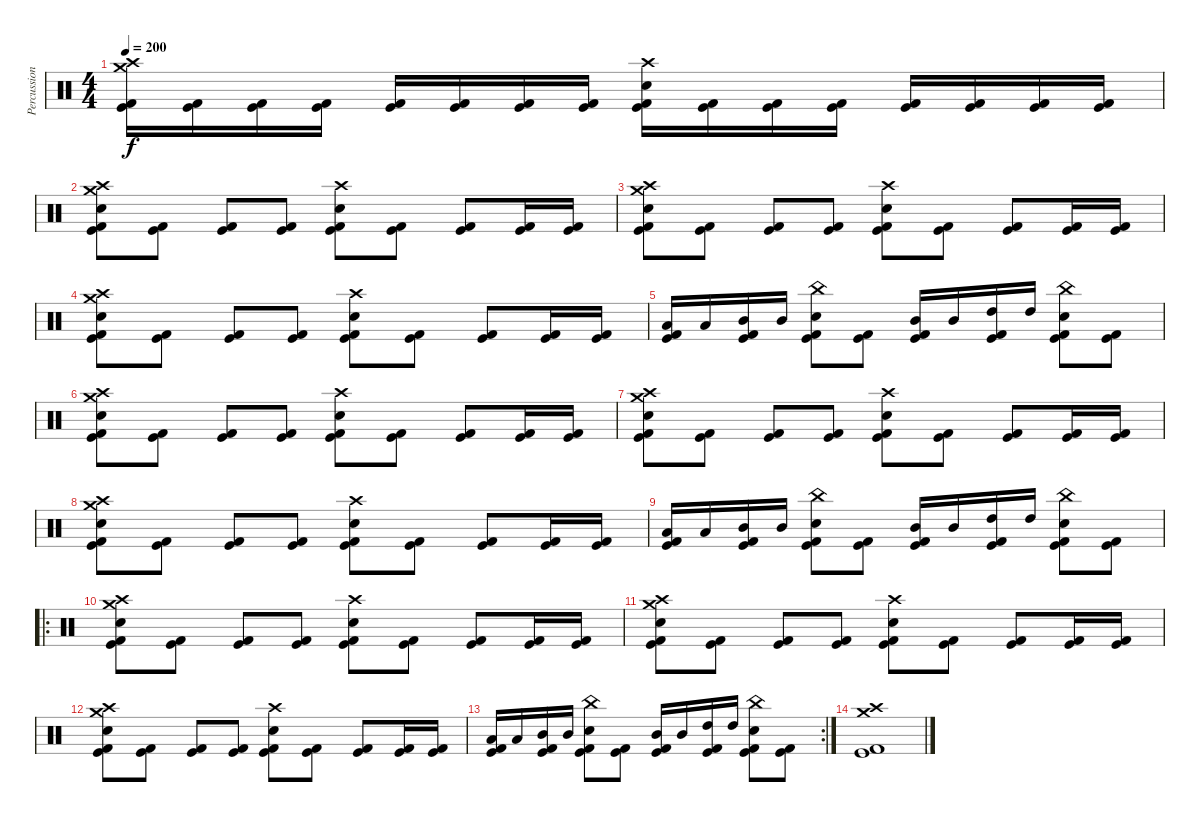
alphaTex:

\track ("Percussion" "Percussion") {instrument percussion}
\staff {score}
\articulation defaults
\ts (4 4)
\tempo 200
\clef neutral
\ks c
("Crash medium (hit)" "Crash high (hit)" "Kick (hit)" "Kick (hit) 2").16{dy f} ("Kick (hit)" "Kick (hit) 2").16 ("Kick (hit)" "Kick (hit) 2").16 ("Kick (hit)" "Kick (hit) 2").16 ("Kick (hit)" "Kick (hit) 2").16 ("Kick (hit)" "Kick (hit) 2").16 ("Kick (hit)" "Kick (hit) 2").16 ("Kick (hit)" "Kick (hit) 2").16 ("Crash high (hit)" "Electric Snare (hit)" "Kick (hit)" "Kick (hit) 2").16 ("Kick (hit)" "Kick (hit) 2").16 ("Kick (hit)" "Kick (hit) 2").16 ("Kick (hit)" "Kick (hit) 2").16 ("Kick (hit)" "Kick (hit) 2").16 ("Kick (hit)" "Kick (hit) 2").16 ("Kick (hit)" "Kick (hit) 2").16 ("Kick (hit)" "Kick (hit) 2").16 |
("Crash medium (hit)" "Crash high (hit)" "Electric Snare (hit)" "Kick (hit)" "Kick (hit) 2").8 ("Kick (hit)" "Kick (hit) 2").8 ("Kick (hit)" "Kick (hit) 2").8 ("Kick (hit)" "Kick (hit) 2").8 ("Crash high (hit)" "Electric Snare (hit)" "Kick (hit)" "Kick (hit) 2").8 ("Kick (hit)" "Kick (hit) 2").8 ("Kick (hit)" "Kick (hit) 2").8 ("Kick (hit)" "Kick (hit) 2").16 ("Kick (hit)" "Kick (hit) 2").16 |
("Crash medium (hit)" "Crash high (hit)" "Electric Snare (hit)" "Kick (hit)" "Kick (hit) 2").8 ("Kick (hit)" "Kick (hit) 2").8 ("Kick (hit)" "Kick (hit) 2").8 ("Kick (hit)" "Kick (hit) 2").8 ("Crash high (hit)" "Electric Snare (hit)" "Kick (hit)" "Kick (hit) 2").8 ("Kick (hit)" "Kick (hit) 2").8 ("Kick (hit)" "Kick (hit) 2").8 ("Kick (hit)" "Kick (hit) 2").16 ("Kick (hit)" "Kick (hit) 2").16 |
("Crash medium (hit)" "Crash high (hit)" "Electric Snare (hit)" "Kick (hit)" "Kick (hit) 2").8 ("Kick (hit)" "Kick (hit) 2").8 ("Kick (hit)" "Kick (hit) 2").8 ("Kick (hit)" "Kick (hit) 2").8 ("Crash high (hit)" "Electric Snare (hit)" "Kick (hit)" "Kick (hit) 2").8 ("Kick (hit)" "Kick (hit) 2").8 ("Kick (hit)" "Kick (hit) 2").8 ("Kick (hit)" "Kick (hit) 2").16 ("Kick (hit)" "Kick (hit) 2").16 |
("Low Tom (hit)" "Kick (hit)" "Kick (hit) 2").16 "Low Tom (hit)".16 ("Mid Tom (hit)" "Kick (hit)" "Kick (hit) 2").16 "Mid Tom (hit)".16 ("China (hit)" "Electric Snare (hit)" "Kick (hit)" "Kick (hit) 2").8 ("Kick (hit)" "Kick (hit) 2").8 ("Mid Tom (hit)" "Kick (hit)" "Kick (hit) 2").16 "Mid Tom (hit)".16 ("High Tom (hit)" "Kick (hit)" "Kick (hit) 2").16 "High Tom (hit)".16 ("China (hit)" "Electric Snare (hit)" "Kick (hit)" "Kick (hit) 2").8 ("Kick (hit)" "Kick (hit) 2").8 |
("Crash medium (hit)" "Crash high (hit)" "Electric Snare (hit)" "Kick (hit)" "Kick (hit) 2").8 ("Kick (hit)" "Kick (hit) 2").8 ("Kick (hit)" "Kick (hit) 2").8 ("Kick (hit)" "Kick (hit) 2").8 ("Crash high (hit)" "Electric Snare (hit)" "Kick (hit)" "Kick (hit) 2").8 ("Kick (hit)" "Kick (hit) 2").8 ("Kick (hit)" "Kick (hit) 2").8 ("Kick (hit)" "Kick (hit) 2").16 ("Kick (hit)" "Kick (hit) 2").16 |
("Crash medium (hit)" "Crash high (hit)" "Electric Snare (hit)" "Kick (hit)" "Kick (hit) 2").8 ("Kick (hit)" "Kick (hit) 2").8 ("Kick (hit)" "Kick (hit) 2").8 ("Kick (hit)" "Kick (hit) 2").8 ("Crash high (hit)" "Electric Snare (hit)" "Kick (hit)" "Kick (hit) 2").8 ("Kick (hit)" "Kick (hit) 2").8 ("Kick (hit)" "Kick (hit) 2").8 ("Kick (hit)" "Kick (hit) 2").16 ("Kick (hit)" "Kick (hit) 2").16 |
("Crash medium (hit)" "Crash high (hit)" "Electric Snare (hit)" "Kick (hit)" "Kick (hit) 2").8 ("Kick (hit)" "Kick (hit) 2").8 ("Kick (hit)" "Kick (hit) 2").8 ("Kick (hit)" "Kick (hit) 2").8 ("Crash high (hit)" "Electric Snare (hit)" "Kick (hit)" "Kick (hit) 2").8 ("Kick (hit)" "Kick (hit) 2").8 ("Kick (hit)" "Kick (hit) 2").8 ("Kick (hit)" "Kick (hit) 2").16 ("Kick (hit)" "Kick (hit) 2").16 |
("Low Tom (hit)" "Kick (hit)" "Kick (hit) 2").16 "Low Tom (hit)".16 ("Mid Tom (hit)" "Kick (hit)" "Kick (hit) 2").16 "Mid Tom (hit)".16 ("China (hit)" "Electric Snare (hit)" "Kick (hit)" "Kick (hit) 2").8 ("Kick (hit)" "Kick (hit) 2").8 ("Mid Tom (hit)" "Kick (hit)" "Kick (hit) 2").16 "Mid Tom (hit)".16 ("High Tom (hit)" "Kick (hit)" "Kick (hit) 2").16 "High Tom (hit)".16 ("China (hit)" "Electric Snare (hit)" "Kick (hit)" "Kick (hit) 2").8 ("Kick (hit)" "Kick (hit) 2").8 |
\ro
("Crash medium (hit)" "Crash high (hit)" "Electric Snare (hit)" "Kick (hit)" "Kick (hit) 2").8 ("Kick (hit)" "Kick (hit) 2").8 ("Kick (hit)" "Kick (hit) 2").8 ("Kick (hit)" "Kick (hit) 2").8 ("Crash high (hit)" "Electric Snare (hit)" "Kick (hit)" "Kick (hit) 2").8 ("Kick (hit)" "Kick (hit) 2").8 ("Kick (hit)" "Kick (hit) 2").8 ("Kick (hit)" "Kick (hit) 2").16 ("Kick (hit)" "Kick (hit) 2").16 |
("Crash medium (hit)" "Crash high (hit)" "Electric Snare (hit)" "Kick (hit)" "Kick (hit) 2").8 ("Kick (hit)" "Kick (hit) 2").8 ("Kick (hit)" "Kick (hit) 2").8 ("Kick (hit)" "Kick (hit) 2").8 ("Crash high (hit)" "Electric Snare (hit)" "Kick (hit)" "Kick (hit) 2").8 ("Kick (hit)" "Kick (hit) 2").8 ("Kick (hit)" "Kick (hit) 2").8 ("Kick (hit)" "Kick (hit) 2").16 ("Kick (hit)" "Kick (hit) 2").16 |
("Crash medium (hit)" "Crash high (hit)" "Electric Snare (hit)" "Kick (hit)" "Kick (hit) 2").8 ("Kick (hit)" "Kick (hit) 2").8 ("Kick (hit)" "Kick (hit) 2").8 ("Kick (hit)" "Kick (hit) 2").8 ("Crash high (hit)" "Electric Snare (hit)" "Kick (hit)" "Kick (hit) 2").8 ("Kick (hit)" "Kick (hit) 2").8 ("Kick (hit)" "Kick (hit) 2").8 ("Kick (hit)" "Kick (hit) 2").16 ("Kick (hit)" "Kick (hit) 2").16 |
\rc 2
("Low Tom (hit)" "Kick (hit)" "Kick (hit) 2").16 "Low Tom (hit)".16 ("Mid Tom (hit)" "Kick (hit)" "Kick (hit) 2").16 "Mid Tom (hit)".16 ("China (hit)" "Electric Snare (hit)" "Kick (hit)" "Kick (hit) 2").8 ("Kick (hit)" "Kick (hit) 2").8 ("Mid Tom (hit)" "Kick (hit)" "Kick (hit) 2").16 "Mid Tom (hit)".16 ("High Tom (hit)" "Kick (hit)" "Kick (hit) 2").16 "High Tom (hit)".16 ("China (hit)" "Electric Snare (hit)" "Kick (hit)" "Kick (hit) 2").8 ("Kick (hit)" "Kick (hit) 2").8 |
("Crash medium (hit)" "Crash high (hit)" "Kick (hit)" "Kick (hit) 2").1
